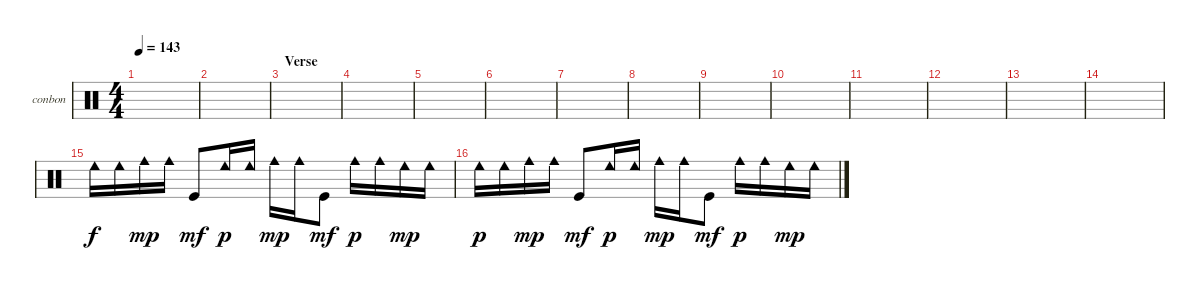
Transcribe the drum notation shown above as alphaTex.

\defaultSystemsLayout 4
\bracketExtendMode groupsimilarinstruments
\firstSystemTrackNameOrientation horizontal
\otherSystemsTrackNameOrientation horizontal
\track ("Nao - Bongos" "conbon") {instrument percussion}
\staff {score}
\articulation defaults
\ts (4 4)
\tempo 143
\clef neutral
\scale
0.333333
\ks c
|
\scale
0.333333 |
\section ("" "Verse")
\scale
0.333333 |
\scale
0.333333 |
\scale
0.333333 |
\scale
0.333333 |
\scale
0.333333 |
\scale
0.333333 |
\scale
0.333333 |
\scale
0.333333 |
\scale
0.333333 |
\scale
0.333333 |
\scale
0.333333 |
\scale
0.333333 |
\scale
0.333333 "Cowbell low (hit)".16 "Cowbell low (hit)".16 "Cowbell medium (hit)".16{dy mp} "Cowbell medium (hit)".16 "Kick (hit)".8{dy mf} "Cowbell low (hit)".16{dy p} "Cowbell low (hit)".16 "Cowbell medium (hit)".16{dy mp} "Cowbell medium (hit)".16 "Kick (hit)".8{dy mf} "Cowbell medium (hit)".16{dy p} "Cowbell medium (hit)".16 "Cowbell low (hit)".16{dy mp} "Cowbell low (hit)".16 |
\scale
0.333333 "Cowbell low (hit)".16{dy p} "Cowbell low (hit)".16 "Cowbell medium (hit)".16{dy mp} "Cowbell medium (hit)".16 "Kick (hit)".8{dy mf} "Cowbell low (hit)".16{dy p} "Cowbell low (hit)".16 "Cowbell medium (hit)".16{dy mp} "Cowbell medium (hit)".16 "Kick (hit)".8{dy mf} "Cowbell medium (hit)".16{dy p} "Cowbell medium (hit)".16 "Cowbell low (hit)".16{dy mp} "Cowbell low (hit)".16
